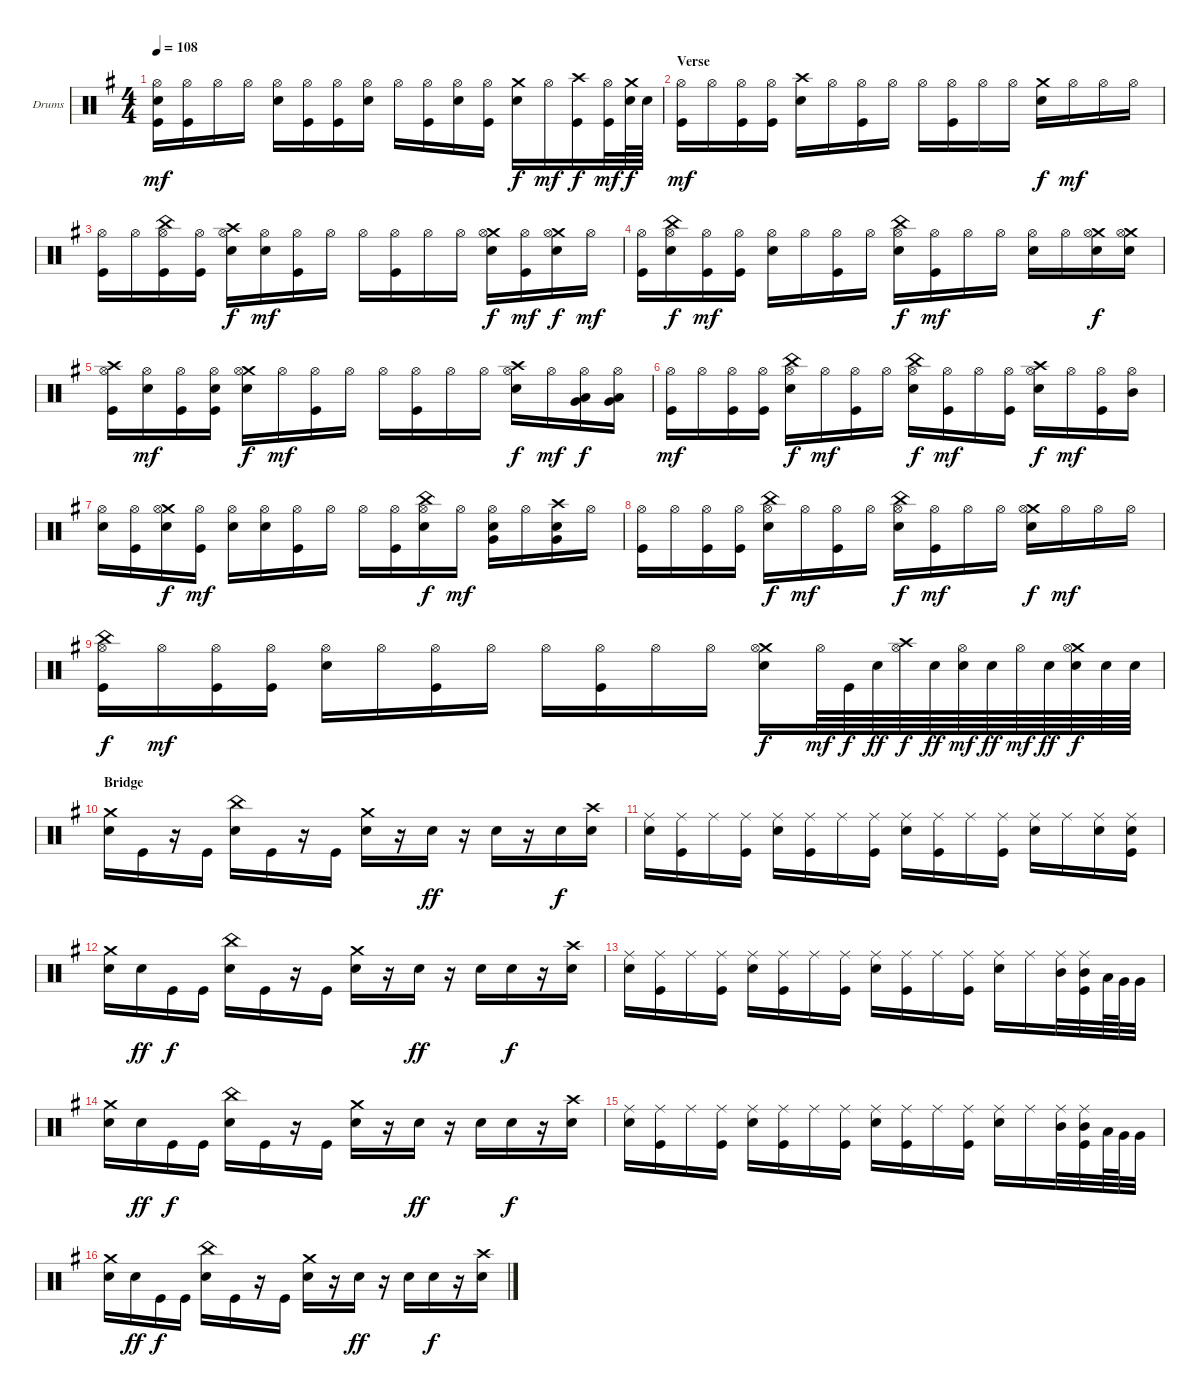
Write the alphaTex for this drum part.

\defaultSystemsLayout 4
\bracketExtendMode groupsimilarinstruments
\firstSystemTrackNameOrientation horizontal
\otherSystemsTrackNameOrientation horizontal
\track ("Drum" "Drums") {instrument percussion}
\staff {score}
\articulation defaults
\ts (4 4)
\tempo 108
\clef neutral
\scale
1.04288
\ks g
("Hi-Hat (open)" "Snare (hit) 2" "Kick (hit)").16{dy mf} ("Hi-Hat (open)" "Kick (hit)").16 "Hi-Hat (open)".16 "Hi-Hat (open)".16 ("Hi-Hat (open)" "Snare (hit) 2").16 ("Hi-Hat (open)" "Kick (hit)").16 ("Hi-Hat (open)" "Kick (hit)").16 ("Hi-Hat (open)" "Snare (hit) 2").16 "Hi-Hat (open)".16 ("Hi-Hat (open)" "Kick (hit)").16 ("Hi-Hat (open)" "Snare (hit) 2").16 ("Hi-Hat (open)" "Kick (hit)").16 ("Crash medium (hit)" "Snare (hit) 2").16{dy f} "Hi-Hat (open)".16{dy mf} ("Crash high (hit)" "Kick (hit)").16{dy f} ("Hi-Hat (open)" "Kick (hit)").32{dy mf} ("Crash medium (hit)" "Snare (hit) 2").64{dy f} "Snare (hit) 2".64 |
\section ("" "Verse")
\scale
0.957125 ("Hi-Hat (open)" "Kick (hit)").16{dy mf} "Hi-Hat (open)".16 ("Hi-Hat (open)" "Kick (hit)").16 ("Hi-Hat (open)" "Kick (hit)").16 ("Crash high (hit)" "Snare (hit) 2").16 "Hi-Hat (open)".16 ("Hi-Hat (open)" "Kick (hit)").16 "Hi-Hat (open)".16 "Hi-Hat (open)".16 ("Hi-Hat (open)" "Kick (hit)").16 "Hi-Hat (open)".16 "Hi-Hat (open)".16 ("Crash medium (hit)" "Snare (hit) 2").16{dy f} "Hi-Hat (open)".16{dy mf} "Hi-Hat (open)".16 "Hi-Hat (open)".16 |
\scale
1.04288 ("Hi-Hat (open)" "Kick (hit)").16 "Hi-Hat (open)".16 ("China (hit)" "Hi-Hat (open)" "Kick (hit)").16 ("Hi-Hat (open)" "Kick (hit)").16 ("Crash high (hit)" "Hi-Hat (open)" "Snare (hit) 2").16{dy f} ("Hi-Hat (open)" "Snare (hit) 2").16{dy mf} ("Hi-Hat (open)" "Kick (hit)").16 "Hi-Hat (open)".16 "Hi-Hat (open)".16 ("Hi-Hat (open)" "Kick (hit)").16 "Hi-Hat (open)".16 "Hi-Hat (open)".16 ("Crash medium (hit)" "Hi-Hat (open)" "Snare (hit) 2").16{dy f} ("Hi-Hat (open)" "Kick (hit)").16{dy mf} ("Crash medium (hit)" "Hi-Hat (open)" "Snare (hit) 2").16{dy f} "Hi-Hat (open)".16{dy mf} |
\scale
0.957125 ("Hi-Hat (open)" "Kick (hit)").16 ("China (hit)" "Hi-Hat (open)" "Snare (hit) 2").16{dy f} ("Hi-Hat (open)" "Kick (hit)").16{dy mf} ("Hi-Hat (open)" "Kick (hit)").16 ("Hi-Hat (open)" "Snare (hit) 2").16 "Hi-Hat (open)".16 ("Hi-Hat (open)" "Kick (hit)").16 "Hi-Hat (open)".16 ("China (hit)" "Hi-Hat (open)" "Snare (hit) 2").16{dy f} ("Hi-Hat (open)" "Kick (hit)").16{dy mf} "Hi-Hat (open)".16 "Hi-Hat (open)".16 ("Hi-Hat (open)" "Snare (hit) 2").16 "Hi-Hat (open)".16 ("Crash medium (hit)" "Hi-Hat (open)" "Snare (hit) 2").16{dy f} ("Crash medium (hit)" "Hi-Hat (open)" "Snare (hit) 2").16 |
\scale
1.04288 ("Crash high (hit)" "Hi-Hat (open)" "Kick (hit)").16 ("Hi-Hat (open)" "Snare (hit) 2").16{dy mf} ("Hi-Hat (open)" "Kick (hit)").16 ("Hi-Hat (open)" "Snare (hit) 2" "Kick (hit)").16 ("Crash medium (hit)" "Hi-Hat (open)" "Snare (hit) 2").16{dy f} "Hi-Hat (open)".16{dy mf} ("Hi-Hat (open)" "Kick (hit)").16 "Hi-Hat (open)".16 "Hi-Hat (open)".16 ("Hi-Hat (open)" "Kick (hit)").16 "Hi-Hat (open)".16 "Hi-Hat (open)".16 ("Crash high (hit)" "Hi-Hat (open)" "Snare (hit) 2").16{dy f} "Hi-Hat (open)".16{dy mf} ("Low Tom (hit)" "Hi-Hat (open)" "Very Low Tom (hit)").16{dy f} ("Low Tom (hit)" "Hi-Hat (open)" "Very Low Tom (hit)").16 |
\scale
0.957125 ("Hi-Hat (open)" "Kick (hit)").16{dy mf} "Hi-Hat (open)".16 ("Hi-Hat (open)" "Kick (hit)").16 ("Hi-Hat (open)" "Kick (hit)").16 ("China (hit)" "Hi-Hat (open)" "Snare (hit) 2").16{dy f} "Hi-Hat (open)".16{dy mf} ("Hi-Hat (open)" "Kick (hit)").16 "Hi-Hat (open)".16 ("China (hit)" "Hi-Hat (open)" "Snare (hit) 2").16{dy f} ("Hi-Hat (open)" "Kick (hit)").16{dy mf} "Hi-Hat (open)".16 ("Hi-Hat (open)" "Kick (hit)").16 ("Crash high (hit)" "Hi-Hat (open)" "Snare (hit) 2").16{dy f} "Hi-Hat (open)".16{dy mf} ("Hi-Hat (open)" "Kick (hit)").16 ("Hi-Hat (open)" "Mid Tom (hit)").16 |
\scale
1.04288 ("Hi-Hat (open)" "Snare (hit) 2").16 ("Hi-Hat (open)" "Kick (hit)").16 ("Crash medium (hit)" "Hi-Hat (open)" "Snare (hit) 2").16{dy f} ("Hi-Hat (open)" "Kick (hit)").16{dy mf} ("Hi-Hat (open)" "Snare (hit) 2").16 ("Hi-Hat (open)" "Snare (hit) 2").16 ("Hi-Hat (open)" "Kick (hit)").16 "Hi-Hat (open)".16 "Hi-Hat (open)".16 ("Hi-Hat (open)" "Kick (hit)").16 ("China (hit)" "Hi-Hat (open)" "Snare (hit) 2").16{dy f} "Hi-Hat (open)".16{dy mf} ("Hi-Hat (open)" "Very Low Tom (hit)" "Snare (hit) 2").16 "Hi-Hat (open)".16 ("Crash high (hit)" "Very Low Tom (hit)" "Snare (hit) 2").16 "Hi-Hat (open)".16 |
\scale
0.957125 ("Hi-Hat (open)" "Kick (hit)").16 "Hi-Hat (open)".16 ("Hi-Hat (open)" "Kick (hit)").16 ("Hi-Hat (open)" "Kick (hit)").16 ("China (hit)" "Hi-Hat (open)" "Snare (hit) 2").16{dy f} "Hi-Hat (open)".16{dy mf} ("Hi-Hat (open)" "Kick (hit)").16 "Hi-Hat (open)".16 ("China (hit)" "Hi-Hat (open)" "Snare (hit) 2").16{dy f} ("Hi-Hat (open)" "Kick (hit)").16{dy mf} "Hi-Hat (open)".16 "Hi-Hat (open)".16 ("Crash medium (hit)" "Hi-Hat (open)" "Snare (hit) 2").16{dy f} "Hi-Hat (open)".16{dy mf} "Hi-Hat (open)".16 "Hi-Hat (open)".16 |
\scale
1.04288 ("China (hit)" "Hi-Hat (open)" "Kick (hit)").16{dy f} "Hi-Hat (open)".16{dy mf} ("Hi-Hat (open)" "Kick (hit)").16 ("Hi-Hat (open)" "Kick (hit)").16 ("Hi-Hat (open)" "Snare (hit) 2").16 "Hi-Hat (open)".16 ("Hi-Hat (open)" "Kick (hit)").16 "Hi-Hat (open)".16 "Hi-Hat (open)".16 ("Hi-Hat (open)" "Kick (hit)").16 "Hi-Hat (open)".16 "Hi-Hat (open)".16 ("Crash medium (hit)" "Hi-Hat (open)" "Snare (hit) 2").16{dy f} "Hi-Hat (open)".64{dy mf} "Kick (hit)".64{dy f} "Snare (hit) 2".64{dy ff} ("Crash high (hit)" "Hi-Hat (open)").64{dy f} "Snare (hit) 2".64{dy ff} ("Hi-Hat (open)" "Snare (hit) 2").64{dy mf} "Snare (hit) 2".64{dy ff} "Hi-Hat (open)".64{dy mf} "Snare (hit) 2".64{dy ff} ("Crash medium (hit)" "Hi-Hat (open)" "Snare (hit) 2").64{dy f} "Snare (hit) 2".64 "Snare (hit) 2".64 |
\section ("" "Bridge")
\scale
0.957125 ("Crash medium (hit)" "Snare (hit) 2").16 "Kick (hit)".16 r.16 "Kick (hit)".16 ("China (hit)" "Snare (hit) 2").16 "Kick (hit)".16 r.16 "Kick (hit)".16 ("Crash medium (hit)" "Snare (hit) 2").16 r.16 "Snare (hit) 2".16{dy ff} r.16 "Snare (hit) 2".16 r.16 "Snare (hit) 2".16{dy f} ("Crash high (hit)" "Snare (hit) 2").16 |
\scale
1.04288 ("Ride (middle)" "Snare (hit) 2").16 ("Ride (middle)" "Kick (hit)").16 "Ride (middle)".16 ("Ride (middle)" "Kick (hit)").16 ("Ride (middle)" "Snare (hit) 2").16 ("Ride (middle)" "Kick (hit)").16 "Ride (middle)".16 ("Ride (middle)" "Kick (hit)").16 ("Ride (middle)" "Snare (hit) 2").16 ("Ride (middle)" "Kick (hit)").16 "Ride (middle)".16 ("Ride (middle)" "Kick (hit)").16 ("Ride (middle)" "Snare (hit) 2").16 "Ride (middle)".16 ("Ride (middle)" "Snare (hit) 2").16 ("Ride (middle)" "Snare (hit) 2" "Kick (hit)").16 |
\scale
0.957125 ("Crash medium (hit)" "Snare (hit) 2").16 "Snare (hit) 2".16{dy ff} "Kick (hit)".16{dy f} "Kick (hit)".16 ("China (hit)" "Snare (hit) 2").16 "Kick (hit)".16 r.16 "Kick (hit)".16 ("Crash medium (hit)" "Snare (hit) 2").16 r.16 "Snare (hit) 2".16{dy ff} r.16 "Snare (hit) 2".16 "Snare (hit) 2".16{dy f} r.16 ("Crash high (hit)" "Snare (hit) 2").16 |
\scale
1.04288 ("Ride (middle)" "Snare (hit) 2").16 ("Ride (middle)" "Kick (hit)").16 "Ride (middle)".16 ("Ride (middle)" "Kick (hit)").16 ("Ride (middle)" "Snare (hit) 2").16 ("Ride (middle)" "Kick (hit)").16 "Ride (middle)".16 ("Ride (middle)" "Kick (hit)").16 ("Ride (middle)" "Snare (hit) 2").16 ("Ride (middle)" "Kick (hit)").16 "Ride (middle)".16 ("Ride (middle)" "Kick (hit)").16 ("Ride (middle)" "Snare (hit) 2").16 "Ride (middle)".16 ("Mid Tom (hit)" "Ride (middle)").32 ("Mid Tom (hit)" "Ride (middle)" "Kick (hit)").32 "Low Tom (hit)".64 "Very Low Tom (hit)".64 "Very Low Tom (hit)".32 |
\scale
0.957125 ("Crash medium (hit)" "Snare (hit) 2").16 "Snare (hit) 2".16{dy ff} "Kick (hit)".16{dy f} "Kick (hit)".16 ("China (hit)" "Snare (hit) 2").16 "Kick (hit)".16 r.16 "Kick (hit)".16 ("Crash medium (hit)" "Snare (hit) 2").16 r.16 "Snare (hit) 2".16{dy ff} r.16 "Snare (hit) 2".16 "Snare (hit) 2".16{dy f} r.16 ("Crash high (hit)" "Snare (hit) 2").16 |
\scale
1.04288 ("Ride (middle)" "Snare (hit) 2").16 ("Ride (middle)" "Kick (hit)").16 "Ride (middle)".16 ("Ride (middle)" "Kick (hit)").16 ("Ride (middle)" "Snare (hit) 2").16 ("Ride (middle)" "Kick (hit)").16 "Ride (middle)".16 ("Ride (middle)" "Kick (hit)").16 ("Ride (middle)" "Snare (hit) 2").16 ("Ride (middle)" "Kick (hit)").16 "Ride (middle)".16 ("Ride (middle)" "Kick (hit)").16 ("Ride (middle)" "Snare (hit) 2").16 "Ride (middle)".16 ("Mid Tom (hit)" "Ride (middle)").32 ("Mid Tom (hit)" "Ride (middle)" "Kick (hit)").32 "Low Tom (hit)".64 "Very Low Tom (hit)".64 "Very Low Tom (hit)".32 |
\scale
0.957125 ("Crash medium (hit)" "Snare (hit) 2").16 "Snare (hit) 2".16{dy ff} "Kick (hit)".16{dy f} "Kick (hit)".16 ("China (hit)" "Snare (hit) 2").16 "Kick (hit)".16 r.16 "Kick (hit)".16 ("Crash medium (hit)" "Snare (hit) 2").16 r.16 "Snare (hit) 2".16{dy ff} r.16 "Snare (hit) 2".16 "Snare (hit) 2".16{dy f} r.16 ("Crash high (hit)" "Snare (hit) 2").16
